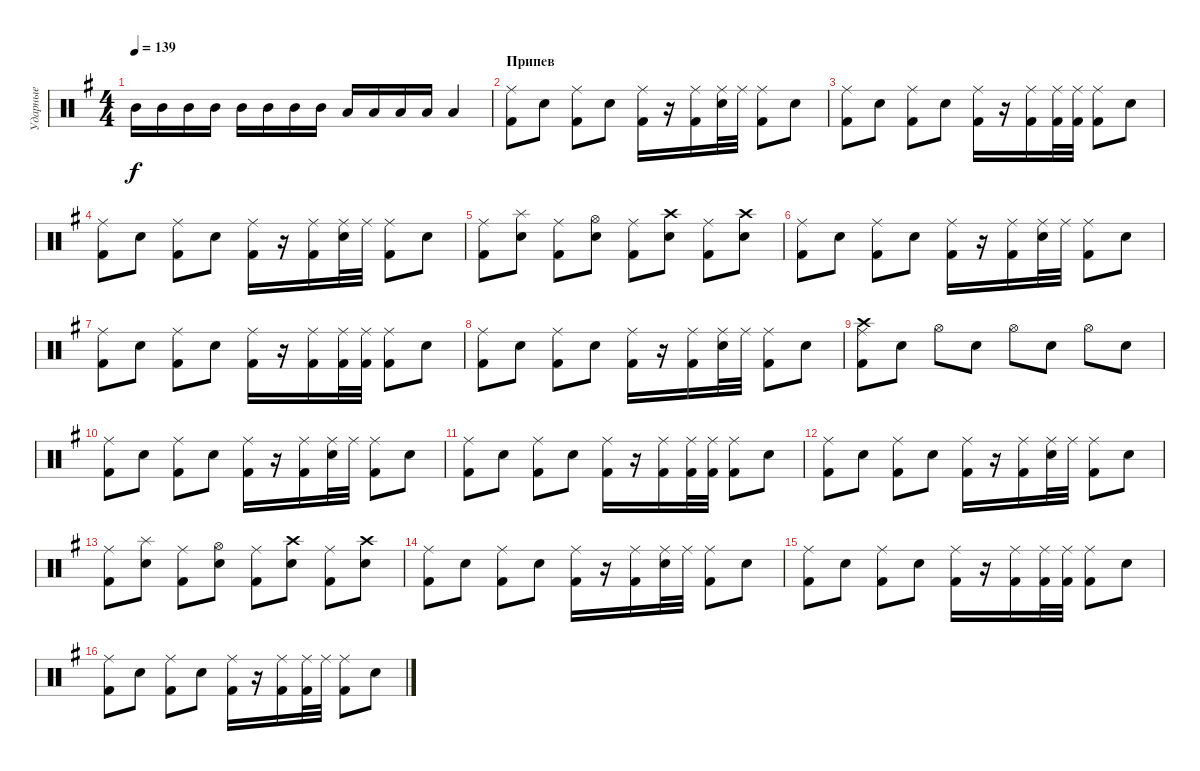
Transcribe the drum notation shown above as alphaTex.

\track ("Ударные" "Ударные") {instrument percussion}
\staff {score}
\articulation defaults
\ts (4 4)
\tempo 139
\clef neutral
\ks eminor "Mid Tom (hit)".16{dy f} "Mid Tom (hit)".16 "Mid Tom (hit)".16 "Mid Tom (hit)".16 "Mid Tom (hit)".16 "Mid Tom (hit)".16 "Mid Tom (hit)".16 "Mid Tom (hit)".16 "Low Tom (hit)".16 "Low Tom (hit)".16 "Low Tom (hit)".16 "Low Tom (hit)".16 "Low Tom (hit)".4
|
\section ("" "Припев")
("Ride (middle)" "Kick (hit) 2").8 "Snare (hit) 2".8 ("Ride (middle)" "Kick (hit) 2").8 "Snare (hit) 2".8 ("Ride (middle)" "Kick (hit) 2").16 r.16 ("Ride (middle)" "Kick (hit) 2").16 ("Ride (middle)" "Snare (hit) 2").32 "Ride (middle)".32 ("Ride (middle)" "Kick (hit) 2").8 "Snare (hit) 2".8 |
("Ride (middle)" "Kick (hit) 2").8 "Snare (hit) 2".8 ("Ride (middle)" "Kick (hit) 2").8 "Snare (hit) 2".8 ("Ride (middle)" "Kick (hit) 2").16 r.16 ("Ride (middle)" "Kick (hit) 2").16 ("Ride (middle)" "Kick (hit) 2").32 ("Ride (middle)" "Kick (hit) 2").32 ("Ride (middle)" "Kick (hit) 2").8 "Snare (hit) 2".8 |
("Ride (middle)" "Kick (hit) 2").8 "Snare (hit) 2".8 ("Ride (middle)" "Kick (hit) 2").8 "Snare (hit) 2".8 ("Ride (middle)" "Kick (hit) 2").16 r.16 ("Ride (middle)" "Kick (hit) 2").16 ("Ride (middle)" "Snare (hit) 2").32 "Ride (middle)".32 ("Ride (middle)" "Kick (hit) 2").8 "Snare (hit) 2".8 |
("Ride (middle)" "Kick (hit) 2").8 ("Splash (hit)" "Snare (hit) 2").8 ("Ride (middle)" "Kick (hit) 2").8 ("Hi-Hat (open)" "Snare (hit) 2").8 ("Ride (middle)" "Kick (hit) 2").8 ("Crash high (hit)" "Snare (hit) 2").8 ("Ride (middle)" "Kick (hit) 2").8 ("Crash high (hit)" "Snare (hit) 2").8 |
("Ride (middle)" "Kick (hit) 2").8 "Snare (hit) 2".8 ("Ride (middle)" "Kick (hit) 2").8 "Snare (hit) 2".8 ("Ride (middle)" "Kick (hit) 2").16 r.16 ("Ride (middle)" "Kick (hit) 2").16 ("Ride (middle)" "Snare (hit) 2").32 "Ride (middle)".32 ("Ride (middle)" "Kick (hit) 2").8 "Snare (hit) 2".8 |
("Ride (middle)" "Kick (hit) 2").8 "Snare (hit) 2".8 ("Ride (middle)" "Kick (hit) 2").8 "Snare (hit) 2".8 ("Ride (middle)" "Kick (hit) 2").16 r.16 ("Ride (middle)" "Kick (hit) 2").16 ("Ride (middle)" "Kick (hit) 2").32 ("Ride (middle)" "Kick (hit) 2").32 ("Ride (middle)" "Kick (hit) 2").8 "Snare (hit) 2".8 |
("Ride (middle)" "Kick (hit) 2").8 "Snare (hit) 2".8 ("Ride (middle)" "Kick (hit) 2").8 "Snare (hit) 2".8 ("Ride (middle)" "Kick (hit) 2").16 r.16 ("Ride (middle)" "Kick (hit) 2").16 ("Ride (middle)" "Snare (hit) 2").32 "Ride (middle)".32 ("Ride (middle)" "Kick (hit) 2").8 "Snare (hit) 2".8 |
("Crash high (hit)" "Ride (middle)" "Kick (hit) 2").8 "Snare (hit) 2".8 "Hi-Hat (open)".8 "Snare (hit) 2".8 "Hi-Hat (open)".8 "Snare (hit) 2".8 "Hi-Hat (open)".8 "Snare (hit) 2".8 |
("Ride (middle)" "Kick (hit) 2").8 "Snare (hit) 2".8 ("Ride (middle)" "Kick (hit) 2").8 "Snare (hit) 2".8 ("Ride (middle)" "Kick (hit) 2").16 r.16 ("Ride (middle)" "Kick (hit) 2").16 ("Ride (middle)" "Snare (hit) 2").32 "Ride (middle)".32 ("Ride (middle)" "Kick (hit) 2").8 "Snare (hit) 2".8 |
("Ride (middle)" "Kick (hit) 2").8 "Snare (hit) 2".8 ("Ride (middle)" "Kick (hit) 2").8 "Snare (hit) 2".8 ("Ride (middle)" "Kick (hit) 2").16 r.16 ("Ride (middle)" "Kick (hit) 2").16 ("Ride (middle)" "Kick (hit) 2").32 ("Ride (middle)" "Kick (hit) 2").32 ("Ride (middle)" "Kick (hit) 2").8 "Snare (hit) 2".8 |
("Ride (middle)" "Kick (hit) 2").8 "Snare (hit) 2".8 ("Ride (middle)" "Kick (hit) 2").8 "Snare (hit) 2".8 ("Ride (middle)" "Kick (hit) 2").16 r.16 ("Ride (middle)" "Kick (hit) 2").16 ("Ride (middle)" "Snare (hit) 2").32 "Ride (middle)".32 ("Ride (middle)" "Kick (hit) 2").8 "Snare (hit) 2".8 |
("Ride (middle)" "Kick (hit) 2").8 ("Splash (hit)" "Snare (hit) 2").8 ("Ride (middle)" "Kick (hit) 2").8 ("Hi-Hat (open)" "Snare (hit) 2").8 ("Ride (middle)" "Kick (hit) 2").8 ("Crash high (hit)" "Snare (hit) 2").8 ("Ride (middle)" "Kick (hit) 2").8 ("Crash high (hit)" "Snare (hit) 2").8 |
("Ride (middle)" "Kick (hit) 2").8 "Snare (hit) 2".8 ("Ride (middle)" "Kick (hit) 2").8 "Snare (hit) 2".8 ("Ride (middle)" "Kick (hit) 2").16 r.16 ("Ride (middle)" "Kick (hit) 2").16 ("Ride (middle)" "Snare (hit) 2").32 "Ride (middle)".32 ("Ride (middle)" "Kick (hit) 2").8 "Snare (hit) 2".8 |
("Ride (middle)" "Kick (hit) 2").8 "Snare (hit) 2".8 ("Ride (middle)" "Kick (hit) 2").8 "Snare (hit) 2".8 ("Ride (middle)" "Kick (hit) 2").16 r.16 ("Ride (middle)" "Kick (hit) 2").16 ("Ride (middle)" "Kick (hit) 2").32 ("Ride (middle)" "Kick (hit) 2").32 ("Ride (middle)" "Kick (hit) 2").8 "Snare (hit) 2".8 |
("Ride (middle)" "Kick (hit) 2").8 "Snare (hit) 2".8 ("Ride (middle)" "Kick (hit) 2").8 "Snare (hit) 2".8 ("Ride (middle)" "Kick (hit) 2").16 r.16 ("Ride (middle)" "Kick (hit) 2").16 ("Ride (middle)" "Kick (hit) 2").32 "Ride (middle)".32 ("Ride (middle)" "Kick (hit) 2").8 "Snare (hit) 2".8
